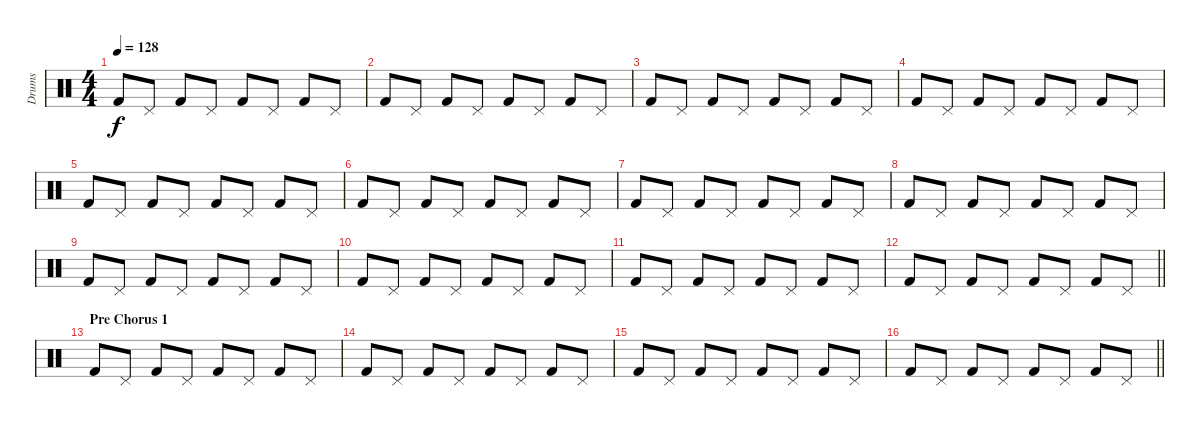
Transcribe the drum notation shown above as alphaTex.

\track ("Drums" "Drums") {instrument percussion}
\staff {score}
\articulation defaults
\ts (4 4)
\tempo 128
\clef neutral
\ks c "Kick (hit) 2".8{dy f} "Pedal Hi-Hat (hit)".8 "Kick (hit) 2".8 "Pedal Hi-Hat (hit)".8 "Kick (hit) 2".8 "Pedal Hi-Hat (hit)".8 "Kick (hit) 2".8 "Pedal Hi-Hat (hit)".8
|
"Kick (hit) 2".8 "Pedal Hi-Hat (hit)".8 "Kick (hit) 2".8 "Pedal Hi-Hat (hit)".8 "Kick (hit) 2".8 "Pedal Hi-Hat (hit)".8 "Kick (hit) 2".8 "Pedal Hi-Hat (hit)".8 |
"Kick (hit) 2".8 "Pedal Hi-Hat (hit)".8 "Kick (hit) 2".8 "Pedal Hi-Hat (hit)".8 "Kick (hit) 2".8 "Pedal Hi-Hat (hit)".8 "Kick (hit) 2".8 "Pedal Hi-Hat (hit)".8 |
"Kick (hit) 2".8 "Pedal Hi-Hat (hit)".8 "Kick (hit) 2".8 "Pedal Hi-Hat (hit)".8 "Kick (hit) 2".8 "Pedal Hi-Hat (hit)".8 "Kick (hit) 2".8 "Pedal Hi-Hat (hit)".8 |
"Kick (hit) 2".8 "Pedal Hi-Hat (hit)".8 "Kick (hit) 2".8 "Pedal Hi-Hat (hit)".8 "Kick (hit) 2".8 "Pedal Hi-Hat (hit)".8 "Kick (hit) 2".8 "Pedal Hi-Hat (hit)".8 |
"Kick (hit) 2".8 "Pedal Hi-Hat (hit)".8 "Kick (hit) 2".8 "Pedal Hi-Hat (hit)".8 "Kick (hit) 2".8 "Pedal Hi-Hat (hit)".8 "Kick (hit) 2".8 "Pedal Hi-Hat (hit)".8 |
"Kick (hit) 2".8 "Pedal Hi-Hat (hit)".8 "Kick (hit) 2".8 "Pedal Hi-Hat (hit)".8 "Kick (hit) 2".8 "Pedal Hi-Hat (hit)".8 "Kick (hit) 2".8 "Pedal Hi-Hat (hit)".8 |
"Kick (hit) 2".8 "Pedal Hi-Hat (hit)".8 "Kick (hit) 2".8 "Pedal Hi-Hat (hit)".8 "Kick (hit) 2".8 "Pedal Hi-Hat (hit)".8 "Kick (hit) 2".8 "Pedal Hi-Hat (hit)".8 |
"Kick (hit) 2".8 "Pedal Hi-Hat (hit)".8 "Kick (hit) 2".8 "Pedal Hi-Hat (hit)".8 "Kick (hit) 2".8 "Pedal Hi-Hat (hit)".8 "Kick (hit) 2".8 "Pedal Hi-Hat (hit)".8 |
"Kick (hit) 2".8 "Pedal Hi-Hat (hit)".8 "Kick (hit) 2".8 "Pedal Hi-Hat (hit)".8 "Kick (hit) 2".8 "Pedal Hi-Hat (hit)".8 "Kick (hit) 2".8 "Pedal Hi-Hat (hit)".8 |
"Kick (hit) 2".8 "Pedal Hi-Hat (hit)".8 "Kick (hit) 2".8 "Pedal Hi-Hat (hit)".8 "Kick (hit) 2".8 "Pedal Hi-Hat (hit)".8 "Kick (hit) 2".8 "Pedal Hi-Hat (hit)".8 |
\barLineRight lightlight "Kick (hit) 2".8 "Pedal Hi-Hat (hit)".8 "Kick (hit) 2".8 "Pedal Hi-Hat (hit)".8 "Kick (hit) 2".8 "Pedal Hi-Hat (hit)".8 "Kick (hit) 2".8 "Pedal Hi-Hat (hit)".8
|
\section ("" "Pre Chorus 1")
"Kick (hit) 2".8 "Pedal Hi-Hat (hit)".8 "Kick (hit) 2".8 "Pedal Hi-Hat (hit)".8 "Kick (hit) 2".8 "Pedal Hi-Hat (hit)".8 "Kick (hit) 2".8 "Pedal Hi-Hat (hit)".8 |
"Kick (hit) 2".8 "Pedal Hi-Hat (hit)".8 "Kick (hit) 2".8 "Pedal Hi-Hat (hit)".8 "Kick (hit) 2".8 "Pedal Hi-Hat (hit)".8 "Kick (hit) 2".8 "Pedal Hi-Hat (hit)".8 |
"Kick (hit) 2".8 "Pedal Hi-Hat (hit)".8 "Kick (hit) 2".8 "Pedal Hi-Hat (hit)".8 "Kick (hit) 2".8 "Pedal Hi-Hat (hit)".8 "Kick (hit) 2".8 "Pedal Hi-Hat (hit)".8 |
\barLineRight lightlight "Kick (hit) 2".8 "Pedal Hi-Hat (hit)".8 "Kick (hit) 2".8 "Pedal Hi-Hat (hit)".8 "Kick (hit) 2".8 "Pedal Hi-Hat (hit)".8 "Kick (hit) 2".8 "Pedal Hi-Hat (hit)".8
